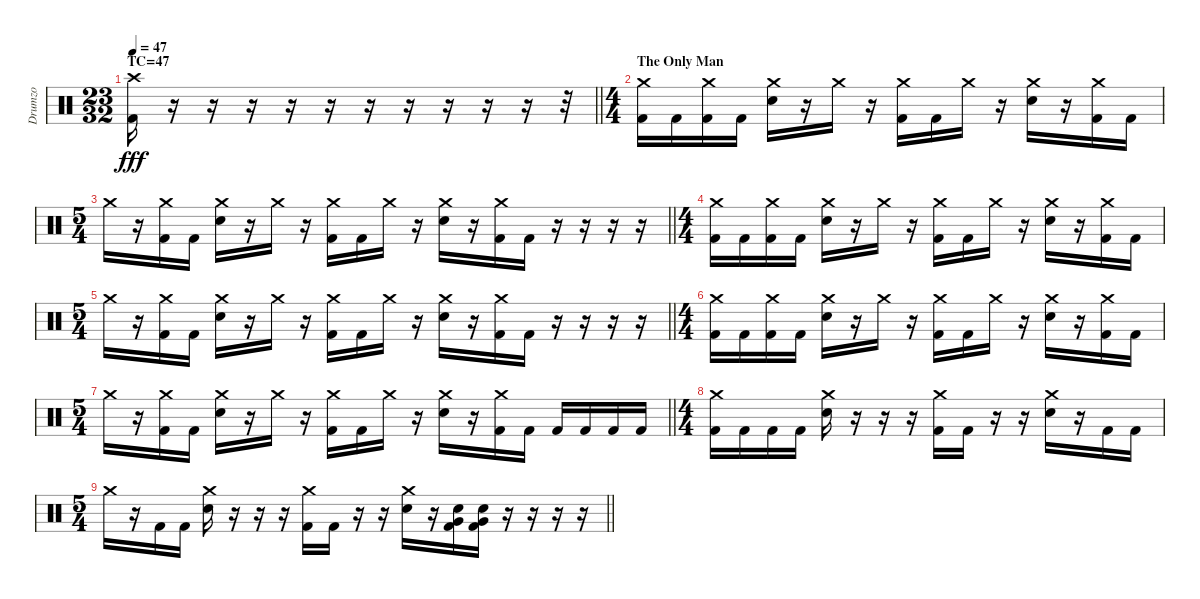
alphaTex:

\track ("Drumzo" "Drumzo") {instrument percussion}
\staff {score}
\articulation defaults
\ts (23 32)
\section ("" "TC=47")
\tempo 47
\clef neutral
\barLineRight lightlight
\ks c
("Crash high (hit)" "Kick (hit) 2").16{dy fff} r.16 r.16 r.16 r.16 r.16 r.16 r.16 r.16 r.16 r.16 r.32 |
\ts (4 4)
\section ("" "The Only Man")
("Crash medium (hit)" "Kick (hit) 2").16 "Kick (hit) 2".16 ("Crash medium (hit)" "Kick (hit) 2").16 "Kick (hit) 2".16 ("Crash medium (hit)" "Snare (hit) 2").16 r.16 "Crash medium (hit)".16 r.16 ("Crash medium (hit)" "Kick (hit) 2").16 "Kick (hit) 2".16 "Crash medium (hit)".16 r.16 ("Crash medium (hit)" "Snare (hit) 2").16 r.16 ("Crash medium (hit)" "Kick (hit) 2").16 "Kick (hit) 2".16 |
\ts (5 4)
\barLineRight lightlight "Crash medium (hit)".16
r.16 ("Crash medium (hit)" "Kick (hit) 2").16 "Kick (hit) 2".16 ("Crash medium (hit)" "Snare (hit) 2").16 r.16 "Crash medium (hit)".16 r.16 ("Crash medium (hit)" "Kick (hit) 2").16 "Kick (hit) 2".16 "Crash medium (hit)".16 r.16 ("Crash medium (hit)" "Snare (hit) 2").16 r.16 ("Crash medium (hit)" "Kick (hit) 2").16 "Kick (hit) 2".16 r.16 r.16 r.16 r.16 |
\ts (4 4)
("Crash medium (hit)" "Kick (hit) 2").16 "Kick (hit) 2".16 ("Crash medium (hit)" "Kick (hit) 2").16 "Kick (hit) 2".16 ("Crash medium (hit)" "Snare (hit) 2").16 r.16 "Crash medium (hit)".16 r.16 ("Crash medium (hit)" "Kick (hit) 2").16 "Kick (hit) 2".16 "Crash medium (hit)".16 r.16 ("Crash medium (hit)" "Snare (hit) 2").16 r.16 ("Crash medium (hit)" "Kick (hit) 2").16 "Kick (hit) 2".16 |
\ts (5 4)
\barLineRight lightlight "Crash medium (hit)".16
r.16 ("Crash medium (hit)" "Kick (hit) 2").16 "Kick (hit) 2".16 ("Crash medium (hit)" "Snare (hit) 2").16 r.16 "Crash medium (hit)".16 r.16 ("Crash medium (hit)" "Kick (hit) 2").16 "Kick (hit) 2".16 "Crash medium (hit)".16 r.16 ("Crash medium (hit)" "Snare (hit) 2").16 r.16 ("Crash medium (hit)" "Kick (hit) 2").16 "Kick (hit) 2".16 r.16 r.16 r.16 r.16 |
\ts (4 4)
("Crash medium (hit)" "Kick (hit) 2").16 "Kick (hit) 2".16 ("Crash medium (hit)" "Kick (hit) 2").16 "Kick (hit) 2".16 ("Crash medium (hit)" "Snare (hit) 2").16 r.16 "Crash medium (hit)".16 r.16 ("Crash medium (hit)" "Kick (hit) 2").16 "Kick (hit) 2".16 "Crash medium (hit)".16 r.16 ("Crash medium (hit)" "Snare (hit) 2").16 r.16 ("Crash medium (hit)" "Kick (hit) 2").16 "Kick (hit) 2".16 |
\ts (5 4)
\barLineRight lightlight "Crash medium (hit)".16
r.16 ("Crash medium (hit)" "Kick (hit) 2").16 "Kick (hit) 2".16 ("Crash medium (hit)" "Snare (hit) 2").16 r.16 "Crash medium (hit)".16 r.16 ("Crash medium (hit)" "Kick (hit) 2").16 "Kick (hit) 2".16 "Crash medium (hit)".16 r.16 ("Crash medium (hit)" "Snare (hit) 2").16 r.16 ("Crash medium (hit)" "Kick (hit) 2").16 "Kick (hit) 2".16 "Kick (hit) 2".16 "Kick (hit) 2".16 "Kick (hit) 2".16 "Kick (hit) 2".16 |
\ts (4 4)
("Crash medium (hit)" "Kick (hit) 2").16 "Kick (hit) 2".16 "Kick (hit) 2".16 "Kick (hit) 2".16 ("Crash medium (hit)" "Snare (hit) 2").16 r.16 r.16 r.16 ("Crash medium (hit)" "Kick (hit) 2").16 "Kick (hit) 2".16 r.16 r.16 ("Crash medium (hit)" "Snare (hit) 2").16 r.16 "Kick (hit) 2".16 "Kick (hit) 2".16 |
\ts (5 4)
\barLineRight lightlight "Crash medium (hit)".16
r.16 "Kick (hit) 2".16 "Kick (hit) 2".16 ("Crash medium (hit)" "Snare (hit) 2").16 r.16 r.16 r.16 ("Crash medium (hit)" "Kick (hit) 2").16 "Kick (hit) 2".16 r.16 r.16 ("Crash medium (hit)" "Snare (hit) 2").16 r.16 ("Very Low Tom (hit)" "Snare (hit) 2" "Kick (hit) 2").16 ("Very Low Tom (hit)" "Snare (hit) 2" "Kick (hit) 2").16 r.16 r.16 r.16 r.16
